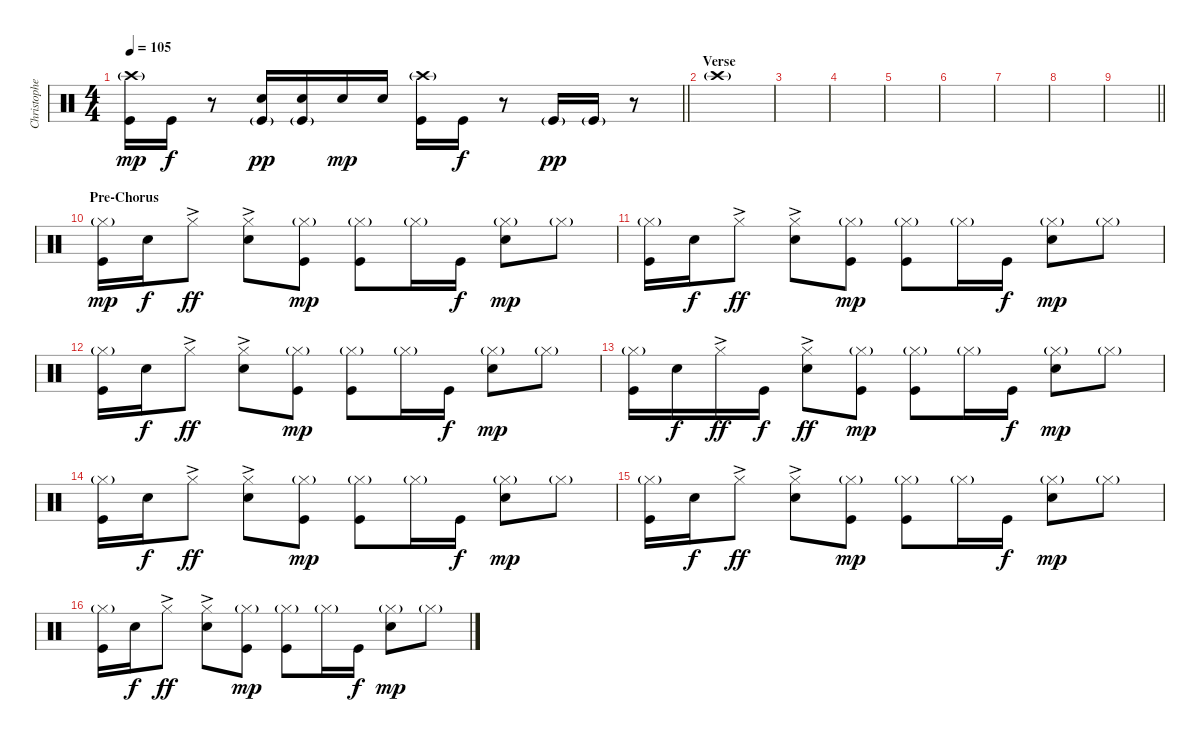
\track ("Christopher - Drums" "Christophe") {instrument percussion}
\staff {score}
\articulation defaults
\ts (4 4)
\tempo 105
\clef neutral
\barLineRight lightlight
\ks c
("Crash high (hit)"{g} "Kick (hit)").16{dy mp} "Kick (hit)".16{dy f} r.8 ("Snare (hit) 2" "Kick (hit)"{g}).16{dy pp} ("Snare (hit) 2" "Kick (hit)"{g}).16 "Snare (hit) 2".16{dy mp} "Snare (hit) 2".16 ("Crash high (hit)"{g} "Kick (hit)").16 "Kick (hit)".16{dy f} r.8 "Kick (hit)"{g}.16{dy pp} "Kick (hit)"{g}.16 r.8 |
\section ("" "Verse")
"Crash high (hit)"{g}.1 |
|
|
|
|
|
|
\barLineRight lightlight
|
\section ("" "Pre-Chorus")
("Hi-Hat (closed)"{g} "Kick (hit)").16{dy mp} "Snare (hit) 2".16{dy f} "Hi-Hat (closed)"{ac}.8{dy ff} ("Hi-Hat (closed)"{ac} "Snare (hit) 2").8 ("Hi-Hat (closed)"{g} "Kick (hit)").8{dy mp} ("Hi-Hat (closed)"{g} "Kick (hit)").8 "Hi-Hat (closed)"{g}.16 "Kick (hit)".16{dy f} ("Hi-Hat (closed)"{g} "Snare (hit) 2").8{dy mp} "Hi-Hat (closed)"{g}.8 |
("Hi-Hat (closed)"{g} "Kick (hit)").16 "Snare (hit) 2".16{dy f} "Hi-Hat (closed)"{ac}.8{dy ff} ("Hi-Hat (closed)"{ac} "Snare (hit) 2").8 ("Hi-Hat (closed)"{g} "Kick (hit)").8{dy mp} ("Hi-Hat (closed)"{g} "Kick (hit)").8 "Hi-Hat (closed)"{g}.16 "Kick (hit)".16{dy f} ("Hi-Hat (closed)"{g} "Snare (hit) 2").8{dy mp} "Hi-Hat (closed)"{g}.8 |
("Hi-Hat (closed)"{g} "Kick (hit)").16 "Snare (hit) 2".16{dy f} "Hi-Hat (closed)"{ac}.8{dy ff} ("Hi-Hat (closed)"{ac} "Snare (hit) 2").8 ("Hi-Hat (closed)"{g} "Kick (hit)").8{dy mp} ("Hi-Hat (closed)"{g} "Kick (hit)").8 "Hi-Hat (closed)"{g}.16 "Kick (hit)".16{dy f} ("Hi-Hat (closed)"{g} "Snare (hit) 2").8{dy mp} "Hi-Hat (closed)"{g}.8 |
("Hi-Hat (closed)"{g} "Kick (hit)").16 "Snare (hit) 2".16{dy f} "Hi-Hat (closed)"{ac}.16{dy ff} "Kick (hit)".16{dy f} ("Hi-Hat (closed)"{ac} "Snare (hit) 2").8{dy ff} ("Hi-Hat (closed)"{g} "Kick (hit)").8{dy mp} ("Hi-Hat (closed)"{g} "Kick (hit)").8 "Hi-Hat (closed)"{g}.16 "Kick (hit)".16{dy f} ("Hi-Hat (closed)"{g} "Snare (hit) 2").8{dy mp} "Hi-Hat (closed)"{g}.8 |
("Hi-Hat (closed)"{g} "Kick (hit)").16 "Snare (hit) 2".16{dy f} "Hi-Hat (closed)"{ac}.8{dy ff} ("Hi-Hat (closed)"{ac} "Snare (hit) 2").8 ("Hi-Hat (closed)"{g} "Kick (hit)").8{dy mp} ("Hi-Hat (closed)"{g} "Kick (hit)").8 "Hi-Hat (closed)"{g}.16 "Kick (hit)".16{dy f} ("Hi-Hat (closed)"{g} "Snare (hit) 2").8{dy mp} "Hi-Hat (closed)"{g}.8 |
("Hi-Hat (closed)"{g} "Kick (hit)").16 "Snare (hit) 2".16{dy f} "Hi-Hat (closed)"{ac}.8{dy ff} ("Hi-Hat (closed)"{ac} "Snare (hit) 2").8 ("Hi-Hat (closed)"{g} "Kick (hit)").8{dy mp} ("Hi-Hat (closed)"{g} "Kick (hit)").8 "Hi-Hat (closed)"{g}.16 "Kick (hit)".16{dy f} ("Hi-Hat (closed)"{g} "Snare (hit) 2").8{dy mp} "Hi-Hat (closed)"{g}.8 |
("Hi-Hat (closed)"{g} "Kick (hit)").16 "Snare (hit) 2".16{dy f} "Hi-Hat (closed)"{ac}.8{dy ff} ("Hi-Hat (closed)"{ac} "Snare (hit) 2").8 ("Hi-Hat (closed)"{g} "Kick (hit)").8{dy mp} ("Hi-Hat (closed)"{g} "Kick (hit)").8 "Hi-Hat (closed)"{g}.16 "Kick (hit)".16{dy f} ("Hi-Hat (closed)"{g} "Snare (hit) 2").8{dy mp} "Hi-Hat (closed)"{g}.8
